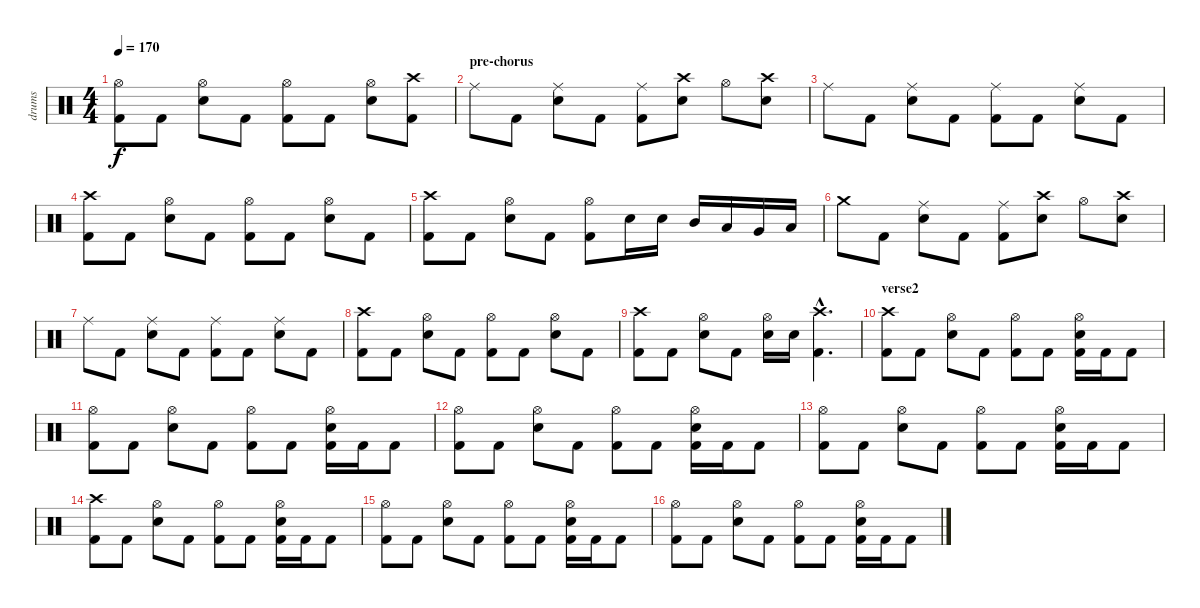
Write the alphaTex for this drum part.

\track ("drums" "drums") {instrument percussion}
\staff {score}
\articulation defaults
\ts (4 4)
\tempo 170
\clef neutral
\ks c
("Hi-Hat (open)" "Kick (hit) 2").8{dy f} "Kick (hit) 2".8 ("Hi-Hat (open)" "Electric Snare (hit)").8 "Kick (hit) 2".8 ("Hi-Hat (open)" "Kick (hit) 2").8 "Kick (hit) 2".8 ("Hi-Hat (open)" "Electric Snare (hit)").8 ("Crash high (hit)" "Kick (hit) 2").8 |
\section ("" "pre-chorus")
"Ride (middle)".8 "Kick (hit) 2".8 ("Ride (middle)" "Electric Snare (hit)").8 "Kick (hit) 2".8 ("Ride (middle)" "Kick (hit) 2").8 ("Crash high (hit)" "Electric Snare (hit)").8 "Hi-Hat (open)".8 ("Crash high (hit)" "Electric Snare (hit)").8 |
"Ride (middle)".8 "Kick (hit) 2".8 ("Ride (middle)" "Electric Snare (hit)").8 "Kick (hit) 2".8 ("Ride (middle)" "Kick (hit) 2").8 "Kick (hit) 2".8 ("Ride (middle)" "Electric Snare (hit)").8 "Kick (hit) 2".8 |
("Crash high (hit)" "Kick (hit) 2").8 "Kick (hit) 2".8 ("Hi-Hat (open)" "Electric Snare (hit)").8 "Kick (hit) 2".8 ("Hi-Hat (open)" "Kick (hit) 2").8 "Kick (hit) 2".8 ("Hi-Hat (open)" "Electric Snare (hit)").8 "Kick (hit) 2".8 |
("Crash high (hit)" "Kick (hit) 2").8 "Kick (hit) 2".8 ("Hi-Hat (open)" "Electric Snare (hit)").8 "Kick (hit) 2".8 ("Hi-Hat (open)" "Kick (hit) 2").8 "Electric Snare (hit)".16 "Electric Snare (hit)".16 "Mid Tom (hit)".16 "Low Tom (hit)".16 "Very Low Tom (hit)".16 "Low Floor Tom (hit)".16 |
"Crash medium (hit)".8 "Kick (hit) 2".8 ("Ride (middle)" "Electric Snare (hit)").8 "Kick (hit) 2".8 ("Ride (middle)" "Kick (hit) 2").8 ("Crash high (hit)" "Electric Snare (hit)").8 "Hi-Hat (open)".8 ("Crash high (hit)" "Electric Snare (hit)").8 |
"Ride (middle)".8 "Kick (hit) 2".8 ("Ride (middle)" "Electric Snare (hit)").8 "Kick (hit) 2".8 ("Ride (middle)" "Kick (hit) 2").8 "Kick (hit) 2".8 ("Ride (middle)" "Electric Snare (hit)").8 "Kick (hit) 2".8 |
("Crash high (hit)" "Kick (hit) 2").8 "Kick (hit) 2".8 ("Hi-Hat (open)" "Electric Snare (hit)").8 "Kick (hit) 2".8 ("Hi-Hat (open)" "Kick (hit) 2").8 "Kick (hit) 2".8 ("Hi-Hat (open)" "Electric Snare (hit)").8 "Kick (hit) 2".8 |
("Crash high (hit)" "Kick (hit) 2").8 "Kick (hit) 2".8 ("Hi-Hat (open)" "Electric Snare (hit)").8 "Kick (hit) 2".8 ("Hi-Hat (open)" "Electric Snare (hit)").16 "Electric Snare (hit)".16 ("Crash high (hit)"{hac} "Kick (hit) 2"{hac}).4{d} |
\section ("" "verse2")
("Crash high (hit)" "Kick (hit) 2").8 "Kick (hit) 2".8 ("Hi-Hat (open)" "Electric Snare (hit)").8 "Kick (hit) 2".8 ("Hi-Hat (open)" "Kick (hit) 2").8 "Kick (hit) 2".8 ("Hi-Hat (open)" "Electric Snare (hit)" "Kick (hit) 2").16 "Kick (hit) 2".16 "Kick (hit) 2".8 |
("Hi-Hat (open)" "Kick (hit) 2").8 "Kick (hit) 2".8 ("Hi-Hat (open)" "Electric Snare (hit)").8 "Kick (hit) 2".8 ("Hi-Hat (open)" "Kick (hit) 2").8 "Kick (hit) 2".8 ("Hi-Hat (open)" "Electric Snare (hit)" "Kick (hit) 2").16 "Kick (hit) 2".16 "Kick (hit) 2".8 |
("Hi-Hat (open)" "Kick (hit) 2").8 "Kick (hit) 2".8 ("Hi-Hat (open)" "Electric Snare (hit)").8 "Kick (hit) 2".8 ("Hi-Hat (open)" "Kick (hit) 2").8 "Kick (hit) 2".8 ("Hi-Hat (open)" "Electric Snare (hit)" "Kick (hit) 2").16 "Kick (hit) 2".16 "Kick (hit) 2".8 |
("Hi-Hat (open)" "Kick (hit) 2").8 "Kick (hit) 2".8 ("Hi-Hat (open)" "Electric Snare (hit)").8 "Kick (hit) 2".8 ("Hi-Hat (open)" "Kick (hit) 2").8 "Kick (hit) 2".8 ("Hi-Hat (open)" "Electric Snare (hit)" "Kick (hit) 2").16 "Kick (hit) 2".16 "Kick (hit) 2".8 |
("Crash high (hit)" "Kick (hit) 2").8 "Kick (hit) 2".8 ("Hi-Hat (open)" "Electric Snare (hit)").8 "Kick (hit) 2".8 ("Hi-Hat (open)" "Kick (hit) 2").8 "Kick (hit) 2".8 ("Hi-Hat (open)" "Electric Snare (hit)" "Kick (hit) 2").16 "Kick (hit) 2".16 "Kick (hit) 2".8 |
("Hi-Hat (open)" "Kick (hit) 2").8 "Kick (hit) 2".8 ("Hi-Hat (open)" "Electric Snare (hit)").8 "Kick (hit) 2".8 ("Hi-Hat (open)" "Kick (hit) 2").8 "Kick (hit) 2".8 ("Hi-Hat (open)" "Electric Snare (hit)" "Kick (hit) 2").16 "Kick (hit) 2".16 "Kick (hit) 2".8 |
("Hi-Hat (open)" "Kick (hit) 2").8 "Kick (hit) 2".8 ("Hi-Hat (open)" "Electric Snare (hit)").8 "Kick (hit) 2".8 ("Hi-Hat (open)" "Kick (hit) 2").8 "Kick (hit) 2".8 ("Hi-Hat (open)" "Electric Snare (hit)" "Kick (hit) 2").16 "Kick (hit) 2".16 "Kick (hit) 2".8
